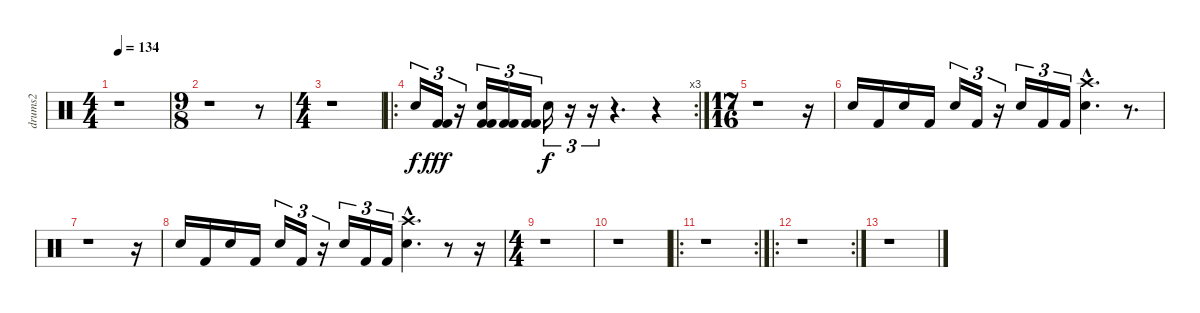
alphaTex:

\track ("drums2" "drums2") {instrument percussion}
\staff {score}
\articulation defaults
\ts (4 4)
\tempo 134
\clef neutral
\ks c
r.1{dy fff} |
\ts (9 8)
r.1 r.8 |
\ts (4 4)
r.1 |
\ro
\rc 3 "Snare (hit) 2".16{tu (3 2) dy f}
("Kick (hit) 2" "Kick (hit) 2").16{tu (3 2) dy fff} r.16{tu (3 2)} ("Snare (hit) 2" "Kick (hit) 2" "Kick (hit) 2").16{tu (3 2)} ("Kick (hit) 2" "Kick (hit) 2").16{tu (3 2)} ("Kick (hit) 2" "Kick (hit) 2").16{tu (3 2)} "Snare (hit) 2".16{tu (3 2) dy f} r.16{tu (3 2)} r.16{tu (3 2)} r.4{d} r.4 |
\ts (17 16)
r.1 r.16 |
"Snare (hit) 2".16 "Kick (hit) 2".16 "Snare (hit) 2".16 "Kick (hit) 2".16 "Snare (hit) 2".16{tu (3 2)} "Kick (hit) 2".16{tu (3 2)} r.16{tu (3 2)} "Snare (hit) 2".16{tu (3 2)} "Kick (hit) 2".16{tu (3 2)} "Kick (hit) 2".16{tu (3 2)} ("Crash high (hit)"{hac} "Snare (hit) 2"{hac}).4{d} r.8{d} |
r.1 r.16 |
"Snare (hit) 2".16 "Kick (hit) 2".16 "Snare (hit) 2".16 "Kick (hit) 2".16 "Snare (hit) 2".16{tu (3 2)} "Kick (hit) 2".16{tu (3 2)} r.16{tu (3 2)} "Snare (hit) 2".16{tu (3 2)} "Kick (hit) 2".16{tu (3 2)} "Kick (hit) 2".16{tu (3 2)} ("Crash high (hit)"{hac} "Snare (hit) 2"{hac}).4{d} r.8 r.16 |
\ts (4 4)
r.1 |
r.1 |
\ro
\rc 2
r.1 |
\ro
\rc 2
r.1 |
r.1
